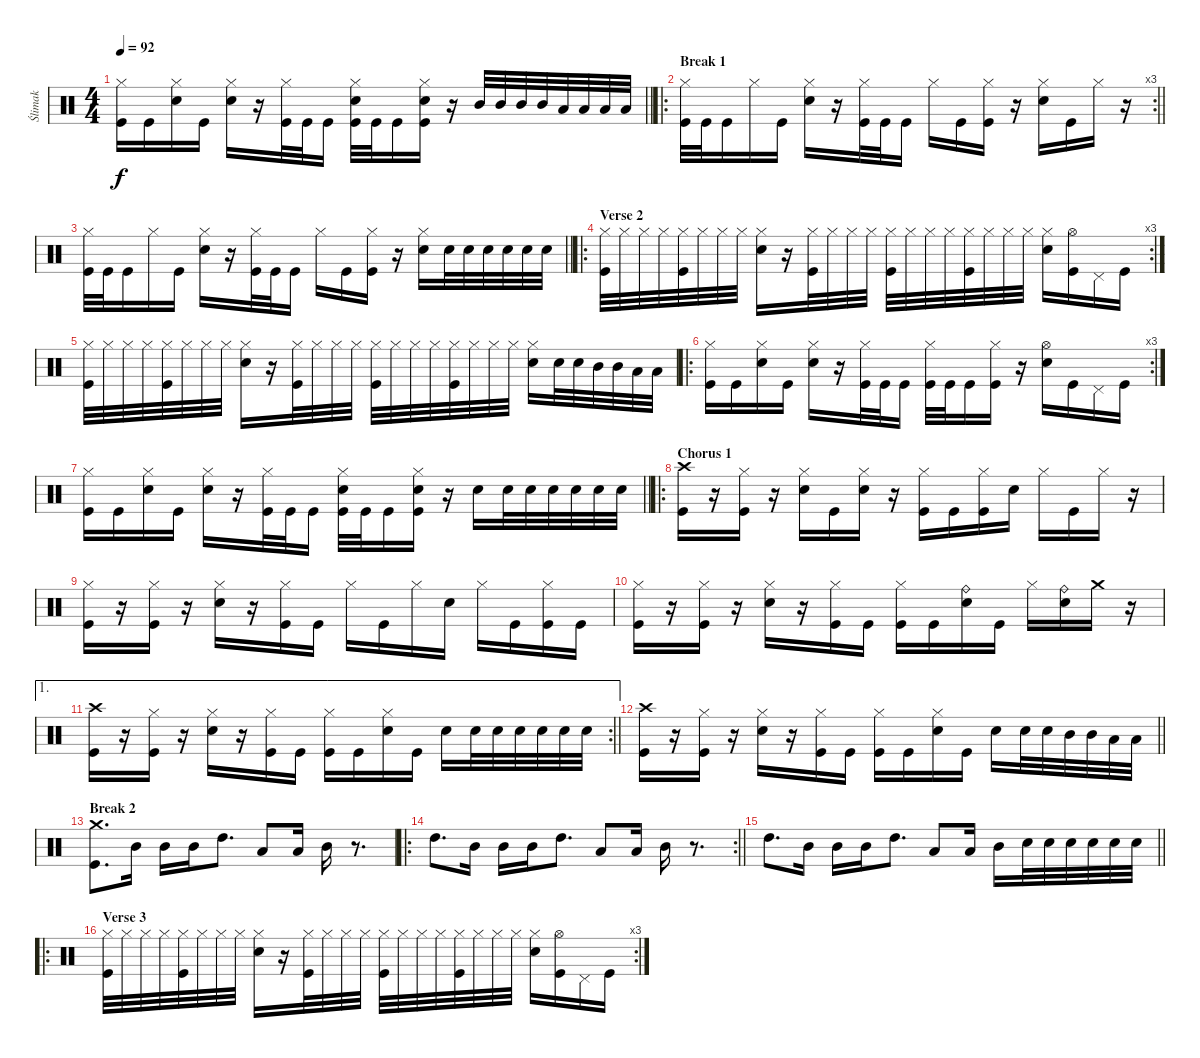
\track ("Ślimak" "Ślimak") {instrument percussion}
\staff {score}
\articulation defaults
\ts (4 4)
\tempo 92
\clef neutral
\barLineRight lightlight
\ks c
("Hi-Hat (closed)" "Kick (hit)").16{dy f} "Kick (hit)".16 ("Hi-Hat (closed)" "Snare (hit) 2").16 "Kick (hit)".16 ("Hi-Hat (closed)" "Snare (hit) 2").16 r.16 ("Hi-Hat (closed)" "Kick (hit)").32 "Kick (hit)".32 "Kick (hit)".16 ("Hi-Hat (closed)" "Snare (hit) 2" "Kick (hit)").32 "Kick (hit)".32 "Kick (hit)".16 ("Hi-Hat (closed)" "Snare (hit) 2" "Kick (hit)").16 r.16 "Mid Tom (hit)".32 "Mid Tom (hit)".32 "Mid Tom (hit)".32 "Mid Tom (hit)".32 "Low Tom (hit)".32 "Low Tom (hit)".32 "Low Tom (hit)".32 "Low Tom (hit)".32 |
\ro
\rc 3
\section ("" "Break 1")
\barLineRight lightlight
("Hi-Hat (closed)" "Kick (hit)").32 "Kick (hit)".32 "Kick (hit)".16 "Hi-Hat (closed)".16 "Kick (hit)".16 ("Hi-Hat (closed)" "Snare (hit) 2").16 r.16 ("Hi-Hat (closed)" "Kick (hit)").32 "Kick (hit)".32 "Kick (hit)".16 "Hi-Hat (closed)".16 "Kick (hit)".16 ("Hi-Hat (closed)" "Kick (hit)").16 r.16 ("Hi-Hat (closed)" "Snare (hit) 2").16 "Kick (hit)".16 "Hi-Hat (closed)".16 r.16 |
\barLineRight lightlight
("Hi-Hat (closed)" "Kick (hit)").32 "Kick (hit)".32 "Kick (hit)".16 "Hi-Hat (closed)".16 "Kick (hit)".16 ("Hi-Hat (closed)" "Snare (hit) 2").16 r.16 ("Hi-Hat (closed)" "Kick (hit)").32 "Kick (hit)".32 "Kick (hit)".16 "Hi-Hat (closed)".16 "Kick (hit)".16 ("Hi-Hat (closed)" "Kick (hit)").16 r.16 ("Hi-Hat (closed)" "Snare (hit) 2").16 "Snare (hit) 2".32 "Snare (hit) 2".32 "Snare (hit) 2".32 "Snare (hit) 2".32 "Snare (hit) 2".32 "Snare (hit) 2".32 |
\ro
\rc 3
\section ("" "Verse 2")
("Hi-Hat (closed)" "Kick (hit)").32 "Hi-Hat (closed)".32 "Hi-Hat (closed)".32 "Hi-Hat (closed)".32 ("Hi-Hat (closed)" "Kick (hit)").32 "Hi-Hat (closed)".32 "Hi-Hat (closed)".32 "Hi-Hat (closed)".32 ("Hi-Hat (closed)" "Snare (hit) 2").16 r.16 ("Hi-Hat (closed)" "Kick (hit)").32 "Hi-Hat (closed)".32 "Hi-Hat (closed)".32 "Hi-Hat (closed)".32 ("Hi-Hat (closed)" "Kick (hit)").32 "Hi-Hat (closed)".32 "Hi-Hat (closed)".32 "Hi-Hat (closed)".32 ("Hi-Hat (closed)" "Kick (hit)").32 "Hi-Hat (closed)".32 "Hi-Hat (closed)".32 "Hi-Hat (closed)".32 ("Hi-Hat (closed)" "Snare (hit) 2").16 ("Hi-Hat (open)" "Kick (hit)").16 "Pedal Hi-Hat (hit)".16 "Kick (hit)".16 |
("Hi-Hat (closed)" "Kick (hit)").32 "Hi-Hat (closed)".32 "Hi-Hat (closed)".32 "Hi-Hat (closed)".32 ("Hi-Hat (closed)" "Kick (hit)").32 "Hi-Hat (closed)".32 "Hi-Hat (closed)".32 "Hi-Hat (closed)".32 ("Hi-Hat (closed)" "Snare (hit) 2").16 r.16 ("Hi-Hat (closed)" "Kick (hit)").32 "Hi-Hat (closed)".32 "Hi-Hat (closed)".32 "Hi-Hat (closed)".32 ("Hi-Hat (closed)" "Kick (hit)").32 "Hi-Hat (closed)".32 "Hi-Hat (closed)".32 "Hi-Hat (closed)".32 ("Hi-Hat (closed)" "Kick (hit)").32 "Hi-Hat (closed)".32 "Hi-Hat (closed)".32 "Hi-Hat (closed)".32 ("Hi-Hat (closed)" "Snare (hit) 2").16 "Snare (hit) 2".32 "Snare (hit) 2".32 "Mid Tom (hit)".32 "Mid Tom (hit)".32 "Low Tom (hit)".32 "Low Tom (hit)".32 |
\ro
\rc 3
("Hi-Hat (closed)" "Kick (hit)").16 "Kick (hit)".16 ("Hi-Hat (closed)" "Snare (hit) 2").16 "Kick (hit)".16 ("Hi-Hat (closed)" "Snare (hit) 2").16 r.16 ("Hi-Hat (closed)" "Kick (hit)").32 "Kick (hit)".32 "Kick (hit)".16 ("Hi-Hat (closed)" "Kick (hit)").32 "Kick (hit)".32 "Kick (hit)".16 ("Hi-Hat (closed)" "Kick (hit)").16 r.16 ("Hi-Hat (open)" "Snare (hit) 2").16 "Kick (hit)".16 "Pedal Hi-Hat (hit)".16 "Kick (hit)".16 |
\barLineRight lightlight
("Hi-Hat (closed)" "Kick (hit)").16 "Kick (hit)".16 ("Hi-Hat (closed)" "Snare (hit) 2").16 "Kick (hit)".16 ("Hi-Hat (closed)" "Snare (hit) 2").16 r.16 ("Hi-Hat (closed)" "Kick (hit)").32 "Kick (hit)".32 "Kick (hit)".16 ("Hi-Hat (closed)" "Snare (hit) 2" "Kick (hit)").32 "Kick (hit)".32 "Kick (hit)".16 ("Hi-Hat (closed)" "Snare (hit) 2" "Kick (hit)").16 r.16 "Snare (hit) 2".16 "Snare (hit) 2".32 "Snare (hit) 2".32 "Snare (hit) 2".32 "Snare (hit) 2".32 "Snare (hit) 2".32 "Snare (hit) 2".32 |
\ro
\section ("" "Chorus 1")
("Crash high (hit)" "Kick (hit)").16 r.16 ("Hi-Hat (closed)" "Kick (hit)").16 r.16 ("Hi-Hat (closed)" "Snare (hit) 2").16 "Kick (hit)".16 ("Hi-Hat (closed)" "Snare (hit) 2").16 r.16 ("Hi-Hat (closed)" "Kick (hit)").16 "Kick (hit)".16 ("Hi-Hat (closed)" "Kick (hit)").16 "Snare (hit) 2".16 "Hi-Hat (closed)".16 "Kick (hit)".16 "Hi-Hat (closed)".16 r.16 |
("Hi-Hat (closed)" "Kick (hit)").16 r.16 ("Hi-Hat (closed)" "Kick (hit)").16 r.16 ("Hi-Hat (closed)" "Snare (hit) 2").16 r.16 ("Hi-Hat (closed)" "Kick (hit)").16 "Kick (hit)".16 "Hi-Hat (closed)".16 "Kick (hit)".16 "Hi-Hat (closed)".16 "Snare (hit) 2".16 "Hi-Hat (closed)".16 "Kick (hit)".16 ("Hi-Hat (closed)" "Kick (hit)").16 "Kick (hit)".16 |
("Hi-Hat (closed)" "Kick (hit)").16 r.16 ("Hi-Hat (closed)" "Kick (hit)").16 r.16 ("Hi-Hat (closed)" "Snare (hit) 2").16 r.16 ("Hi-Hat (closed)" "Kick (hit)").16 "Kick (hit)".16 ("Hi-Hat (closed)" "Kick (hit)").16 "Kick (hit)".16 ("Ride (bell)" "Snare (hit) 2").16 "Kick (hit)".16 "Hi-Hat (closed)".16 ("Ride (bell)" "Snare (hit) 2").16 "Crash medium (hit)".16 r.16 |
\ae 1
\rc 2
\barLineRight lightlight
("Crash high (hit)" "Kick (hit)").16 r.16 ("Hi-Hat (closed)" "Kick (hit)").16 r.16 ("Hi-Hat (closed)" "Snare (hit) 2").16 r.16 ("Hi-Hat (closed)" "Kick (hit)").16 "Kick (hit)".16 ("Hi-Hat (closed)" "Kick (hit)").16 "Kick (hit)".16 ("Hi-Hat (closed)" "Snare (hit) 2").16 "Kick (hit)".16 "Snare (hit) 2".16 "Snare (hit) 2".32 "Snare (hit) 2".32 "Snare (hit) 2".32 "Snare (hit) 2".32 "Snare (hit) 2".32 "Snare (hit) 2".32 |
\barLineRight lightlight
("Crash high (hit)" "Kick (hit)").16 r.16 ("Hi-Hat (closed)" "Kick (hit)").16 r.16 ("Hi-Hat (closed)" "Snare (hit) 2").16 r.16 ("Hi-Hat (closed)" "Kick (hit)").16 "Kick (hit)".16 ("Hi-Hat (closed)" "Kick (hit)").16 "Kick (hit)".16 ("Hi-Hat (closed)" "Snare (hit) 2").16 "Kick (hit)".16 "Snare (hit) 2".16 "Snare (hit) 2".32 "Snare (hit) 2".32 "Mid Tom (hit)".32 "Mid Tom (hit)".32 "Low Tom (hit)".32 "Low Tom (hit)".32 |
\section ("" "Break 2")
("Crash medium (hit)" "Kick (hit)").8{d} "Mid Tom (hit)".16 "Mid Tom (hit)".16 "Mid Tom (hit)".16 "High Tom (hit)".8{d} "Low Tom (hit)".8 "Low Tom (hit)".16 "Mid Tom (hit)".16 r.8{d} |
\ro
\rc 2
\barLineRight lightlight "High Tom (hit)".8{d} "Mid Tom (hit)".16 "Mid Tom (hit)".16 "Mid Tom (hit)".16 "High Tom (hit)".8{d} "Low Tom (hit)".8 "Low Tom (hit)".16 "Mid Tom (hit)".16
r.8{d} |
\barLineRight lightlight "High Tom (hit)".8{d} "Mid Tom (hit)".16 "Mid Tom (hit)".16 "Mid Tom (hit)".16 "High Tom (hit)".8{d} "Low Tom (hit)".8 "Low Tom (hit)".16 "Mid Tom (hit)".16 "Snare (hit) 2".32 "Snare (hit) 2".32 "Snare (hit) 2".32 "Snare (hit) 2".32 "Snare (hit) 2".32 "Snare (hit) 2".32
|
\ro
\rc 3
\section ("" "Verse 3")
("Hi-Hat (closed)" "Kick (hit)").32 "Hi-Hat (closed)".32 "Hi-Hat (closed)".32 "Hi-Hat (closed)".32 ("Hi-Hat (closed)" "Kick (hit)").32 "Hi-Hat (closed)".32 "Hi-Hat (closed)".32 "Hi-Hat (closed)".32 ("Hi-Hat (closed)" "Snare (hit) 2").16 r.16 ("Hi-Hat (closed)" "Kick (hit)").32 "Hi-Hat (closed)".32 "Hi-Hat (closed)".32 "Hi-Hat (closed)".32 ("Hi-Hat (closed)" "Kick (hit)").32 "Hi-Hat (closed)".32 "Hi-Hat (closed)".32 "Hi-Hat (closed)".32 ("Hi-Hat (closed)" "Kick (hit)").32 "Hi-Hat (closed)".32 "Hi-Hat (closed)".32 "Hi-Hat (closed)".32 ("Hi-Hat (closed)" "Snare (hit) 2").16 ("Hi-Hat (open)" "Kick (hit)").16 "Pedal Hi-Hat (hit)".16 "Kick (hit)".16
